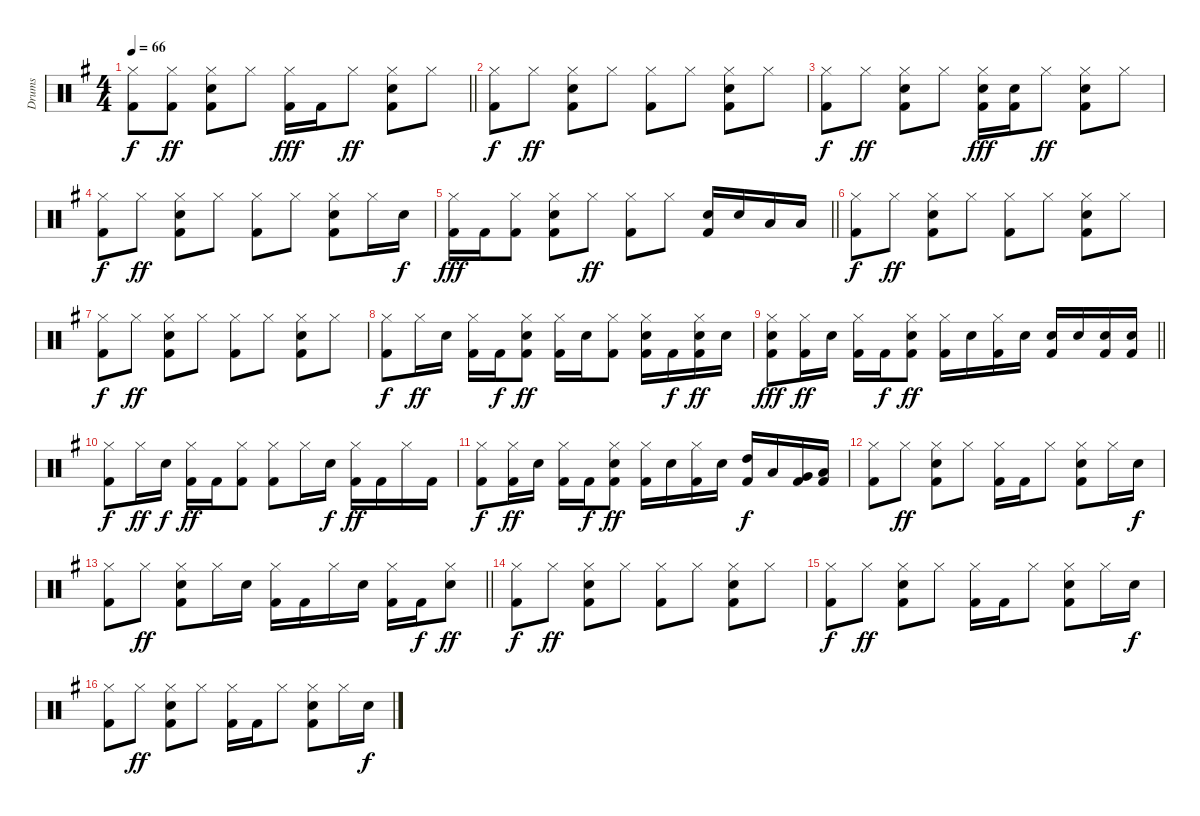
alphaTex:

\track ("Drums" "Drums") {instrument percussion}
\staff {score}
\articulation defaults
\ts (4 4)
\tempo 66
\clef neutral
\barLineRight lightlight
\ks g
("Hi-Hat (closed)" "Kick (hit) 2").8{dy f} ("Hi-Hat (closed)" "Kick (hit) 2").8{dy ff} ("Hi-Hat (closed)" "Snare (hit) 2" "Kick (hit) 2").8 "Hi-Hat (closed)".8 ("Hi-Hat (closed)" "Kick (hit) 2").16{dy fff} "Kick (hit) 2".16 "Hi-Hat (closed)".8{dy ff} ("Hi-Hat (closed)" "Snare (hit) 2" "Kick (hit) 2").8 "Hi-Hat (closed)".8 |
("Hi-Hat (closed)" "Kick (hit) 2").8{dy f} "Hi-Hat (closed)".8{dy ff} ("Hi-Hat (closed)" "Snare (hit) 2" "Kick (hit) 2").8 "Hi-Hat (closed)".8 ("Hi-Hat (closed)" "Kick (hit) 2").8 "Hi-Hat (closed)".8 ("Hi-Hat (closed)" "Snare (hit) 2" "Kick (hit) 2").8 "Hi-Hat (closed)".8 |
("Hi-Hat (closed)" "Kick (hit) 2").8{dy f} "Hi-Hat (closed)".8{dy ff} ("Hi-Hat (closed)" "Snare (hit) 2" "Kick (hit) 2").8 "Hi-Hat (closed)".8 ("Hi-Hat (closed)" "Snare (hit) 2" "Kick (hit) 2").16{dy fff} ("Snare (hit) 2" "Kick (hit) 2").16 "Hi-Hat (closed)".8{dy ff} ("Hi-Hat (closed)" "Snare (hit) 2" "Kick (hit) 2").8 "Hi-Hat (closed)".8 |
("Hi-Hat (closed)" "Kick (hit) 2").8{dy f} "Hi-Hat (closed)".8{dy ff} ("Hi-Hat (closed)" "Snare (hit) 2" "Kick (hit) 2").8 "Hi-Hat (closed)".8 ("Hi-Hat (closed)" "Kick (hit) 2").8 "Hi-Hat (closed)".8 ("Hi-Hat (closed)" "Snare (hit) 2" "Kick (hit) 2").8 "Hi-Hat (closed)".16 "Snare (hit) 2".16{dy f} |
\barLineRight lightlight
("Hi-Hat (closed)" "Kick (hit) 2").16{dy fff} "Kick (hit) 2".16 ("Hi-Hat (closed)" "Kick (hit) 2").8 ("Hi-Hat (closed)" "Snare (hit) 2" "Kick (hit) 2").8 "Hi-Hat (closed)".8{dy ff} ("Hi-Hat (closed)" "Kick (hit) 2").8 "Hi-Hat (closed)".8 ("Snare (hit) 2" "Kick (hit) 2").16 "Snare (hit) 2".16 "Low Tom (hit)".16 "Low Tom (hit)".16 |
("Hi-Hat (closed)" "Kick (hit) 2").8{dy f} "Hi-Hat (closed)".8{dy ff} ("Hi-Hat (closed)" "Snare (hit) 2" "Kick (hit) 2").8 "Hi-Hat (closed)".8 ("Hi-Hat (closed)" "Kick (hit) 2").8 "Hi-Hat (closed)".8 ("Hi-Hat (closed)" "Snare (hit) 2" "Kick (hit) 2").8 "Hi-Hat (closed)".8 |
("Hi-Hat (closed)" "Kick (hit) 2").8{dy f} "Hi-Hat (closed)".8{dy ff} ("Hi-Hat (closed)" "Snare (hit) 2" "Kick (hit) 2").8 "Hi-Hat (closed)".8 ("Hi-Hat (closed)" "Kick (hit) 2").8 "Hi-Hat (closed)".8 ("Hi-Hat (closed)" "Snare (hit) 2" "Kick (hit) 2").8 "Hi-Hat (closed)".8 |
("Hi-Hat (closed)" "Kick (hit) 2").8{dy f} "Hi-Hat (closed)".16{dy ff} "Snare (hit) 2".16 ("Hi-Hat (closed)" "Kick (hit) 2").16 "Kick (hit) 2".16{dy f} ("Hi-Hat (closed)" "Snare (hit) 2" "Kick (hit) 2").8{dy ff} ("Hi-Hat (closed)" "Kick (hit) 2").16 "Snare (hit) 2".16 ("Hi-Hat (closed)" "Kick (hit) 2").8 ("Hi-Hat (closed)" "Snare (hit) 2" "Kick (hit) 2").16 "Kick (hit) 2".16{dy f} ("Hi-Hat (closed)" "Snare (hit) 2" "Kick (hit) 2").16{dy ff} "Snare (hit) 2".16 |
\barLineRight lightlight
("Hi-Hat (closed)" "Snare (hit) 2" "Kick (hit) 2").8{dy fff} ("Hi-Hat (closed)" "Kick (hit) 2").16{dy ff} "Snare (hit) 2".16 ("Hi-Hat (closed)" "Kick (hit) 2").16 "Kick (hit) 2".16{dy f} ("Hi-Hat (closed)" "Snare (hit) 2" "Kick (hit) 2").8{dy ff} ("Hi-Hat (closed)" "Kick (hit) 2").16 "Snare (hit) 2".16 ("Hi-Hat (closed)" "Kick (hit) 2").16 "Snare (hit) 2".16 ("Snare (hit) 2" "Kick (hit) 2").16 "Snare (hit) 2".16 ("Snare (hit) 2" "Kick (hit) 2").16 ("Snare (hit) 2" "Kick (hit) 2").16 |
("Hi-Hat (closed)" "Kick (hit) 2").8{dy f} "Hi-Hat (closed)".16{dy ff} "Snare (hit) 2".16{dy f} ("Hi-Hat (closed)" "Kick (hit) 2").16{dy ff} "Kick (hit) 2".16 ("Hi-Hat (closed)" "Kick (hit) 2").8 ("Hi-Hat (closed)" "Kick (hit) 2").8 "Hi-Hat (closed)".16 "Snare (hit) 2".16{dy f} ("Hi-Hat (closed)" "Kick (hit) 2").16{dy ff} "Kick (hit) 2".16 "Hi-Hat (closed)".16 "Kick (hit) 2".16 |
("Hi-Hat (closed)" "Kick (hit) 2").8{dy f} ("Hi-Hat (closed)" "Kick (hit) 2").16{dy ff} "Snare (hit) 2".16 ("Hi-Hat (closed)" "Kick (hit) 2").16 "Kick (hit) 2".16{dy f} ("Hi-Hat (closed)" "Snare (hit) 2" "Kick (hit) 2").8{dy ff} ("Hi-Hat (closed)" "Kick (hit) 2").16 "Snare (hit) 2".16 ("Hi-Hat (closed)" "Kick (hit) 2").16 "Snare (hit) 2".16 ("High Tom (hit)" "Kick (hit) 2").16{dy f} "Low Tom (hit)".16 ("Very Low Tom (hit)" "Kick (hit) 2").16 ("Low Floor Tom (hit)" "Kick (hit) 2").16 |
("Hi-Hat (closed)" "Kick (hit) 2").8 "Hi-Hat (closed)".8{dy ff} ("Hi-Hat (closed)" "Snare (hit) 2" "Kick (hit) 2").8 "Hi-Hat (closed)".8 ("Hi-Hat (closed)" "Kick (hit) 2").16 "Kick (hit) 2".16 "Hi-Hat (closed)".8 ("Hi-Hat (closed)" "Snare (hit) 2" "Kick (hit) 2").8 "Hi-Hat (closed)".16 "Snare (hit) 2".16{dy f} |
\barLineRight lightlight
("Hi-Hat (closed)" "Kick (hit) 2").8 "Hi-Hat (closed)".8{dy ff} ("Hi-Hat (closed)" "Snare (hit) 2" "Kick (hit) 2").8 "Hi-Hat (closed)".16 "Snare (hit) 2".16 ("Hi-Hat (closed)" "Kick (hit) 2").16 "Kick (hit) 2".16 "Hi-Hat (closed)".16 "Snare (hit) 2".16 ("Hi-Hat (closed)" "Kick (hit) 2").16 "Kick (hit) 2".16{dy f} ("Hi-Hat (closed)" "Snare (hit) 2").8{dy ff} |
("Hi-Hat (closed)" "Kick (hit) 2").8{dy f} "Hi-Hat (closed)".8{dy ff} ("Hi-Hat (closed)" "Snare (hit) 2" "Kick (hit) 2").8 "Hi-Hat (closed)".8 ("Hi-Hat (closed)" "Kick (hit) 2").8 "Hi-Hat (closed)".8 ("Hi-Hat (closed)" "Snare (hit) 2" "Kick (hit) 2").8 "Hi-Hat (closed)".8 |
("Hi-Hat (closed)" "Kick (hit) 2").8{dy f volume 5} "Hi-Hat (closed)".8{dy ff} ("Hi-Hat (closed)" "Snare (hit) 2" "Kick (hit) 2").8 "Hi-Hat (closed)".8 ("Hi-Hat (closed)" "Kick (hit) 2").16 "Kick (hit) 2".16 "Hi-Hat (closed)".8 ("Hi-Hat (closed)" "Snare (hit) 2" "Kick (hit) 2").8 "Hi-Hat (closed)".16 "Snare (hit) 2".16{dy f} |
("Hi-Hat (closed)" "Kick (hit) 2").8 "Hi-Hat (closed)".8{dy ff} ("Hi-Hat (closed)" "Snare (hit) 2" "Kick (hit) 2").8 "Hi-Hat (closed)".8 ("Hi-Hat (closed)" "Kick (hit) 2").16 "Kick (hit) 2".16 "Hi-Hat (closed)".8 ("Hi-Hat (closed)" "Snare (hit) 2" "Kick (hit) 2").8 "Hi-Hat (closed)".16 "Snare (hit) 2".16{dy f}
